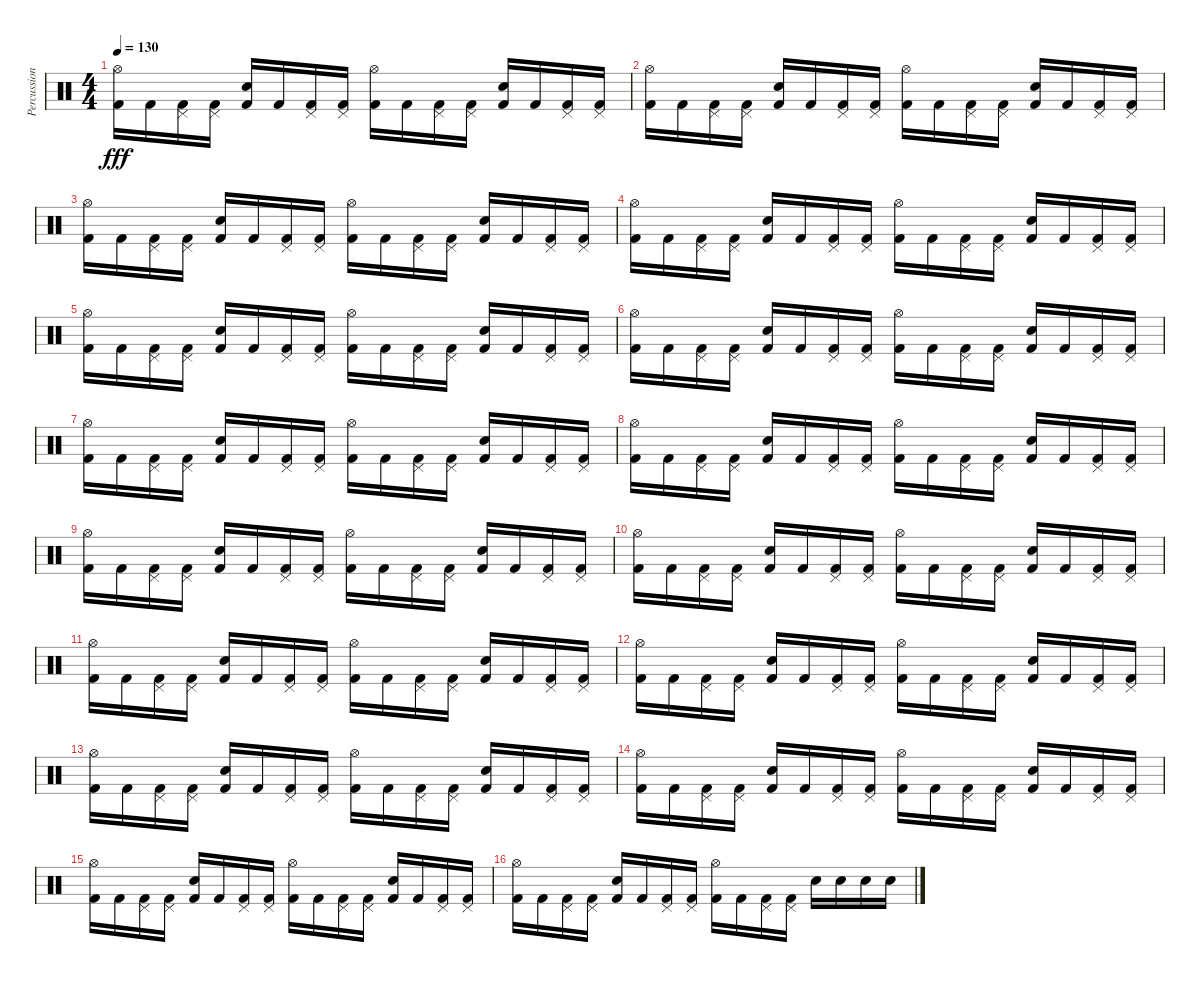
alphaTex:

\track ("Percussion" "Percussion") {instrument percussion}
\staff {score}
\articulation defaults
\ts (4 4)
\tempo 130
\clef neutral
\ks c
("Hi-Hat (open)" "Kick (hit) 2").16{dy fff} "Kick (hit) 2".16 ("Pedal Hi-Hat (hit)" "Kick (hit) 2").16 ("Pedal Hi-Hat (hit)" "Kick (hit) 2").16 ("Snare (hit) 2" "Kick (hit) 2").16 "Kick (hit) 2".16 ("Pedal Hi-Hat (hit)" "Kick (hit) 2").16 ("Pedal Hi-Hat (hit)" "Kick (hit) 2").16 ("Hi-Hat (open)" "Kick (hit) 2").16 "Kick (hit) 2".16 ("Pedal Hi-Hat (hit)" "Kick (hit) 2").16 ("Pedal Hi-Hat (hit)" "Kick (hit) 2").16 ("Snare (hit) 2" "Kick (hit) 2").16 "Kick (hit) 2".16 ("Pedal Hi-Hat (hit)" "Kick (hit) 2").16 ("Pedal Hi-Hat (hit)" "Kick (hit) 2").16 |
("Hi-Hat (open)" "Kick (hit) 2").16 "Kick (hit) 2".16 ("Pedal Hi-Hat (hit)" "Kick (hit) 2").16 ("Pedal Hi-Hat (hit)" "Kick (hit) 2").16 ("Snare (hit) 2" "Kick (hit) 2").16 "Kick (hit) 2".16 ("Pedal Hi-Hat (hit)" "Kick (hit) 2").16 ("Pedal Hi-Hat (hit)" "Kick (hit) 2").16 ("Hi-Hat (open)" "Kick (hit) 2").16 "Kick (hit) 2".16 ("Pedal Hi-Hat (hit)" "Kick (hit) 2").16 ("Pedal Hi-Hat (hit)" "Kick (hit) 2").16 ("Snare (hit) 2" "Kick (hit) 2").16 "Kick (hit) 2".16 ("Pedal Hi-Hat (hit)" "Kick (hit) 2").16 ("Pedal Hi-Hat (hit)" "Kick (hit) 2").16 |
("Hi-Hat (open)" "Kick (hit) 2").16 "Kick (hit) 2".16 ("Pedal Hi-Hat (hit)" "Kick (hit) 2").16 ("Pedal Hi-Hat (hit)" "Kick (hit) 2").16 ("Snare (hit) 2" "Kick (hit) 2").16 "Kick (hit) 2".16 ("Pedal Hi-Hat (hit)" "Kick (hit) 2").16 ("Pedal Hi-Hat (hit)" "Kick (hit) 2").16 ("Hi-Hat (open)" "Kick (hit) 2").16 "Kick (hit) 2".16 ("Pedal Hi-Hat (hit)" "Kick (hit) 2").16 ("Pedal Hi-Hat (hit)" "Kick (hit) 2").16 ("Snare (hit) 2" "Kick (hit) 2").16 "Kick (hit) 2".16 ("Pedal Hi-Hat (hit)" "Kick (hit) 2").16 ("Pedal Hi-Hat (hit)" "Kick (hit) 2").16 |
("Hi-Hat (open)" "Kick (hit) 2").16 "Kick (hit) 2".16 ("Pedal Hi-Hat (hit)" "Kick (hit) 2").16 ("Pedal Hi-Hat (hit)" "Kick (hit) 2").16 ("Snare (hit) 2" "Kick (hit) 2").16 "Kick (hit) 2".16 ("Pedal Hi-Hat (hit)" "Kick (hit) 2").16 ("Pedal Hi-Hat (hit)" "Kick (hit) 2").16 ("Hi-Hat (open)" "Kick (hit) 2").16 "Kick (hit) 2".16 ("Pedal Hi-Hat (hit)" "Kick (hit) 2").16 ("Pedal Hi-Hat (hit)" "Kick (hit) 2").16 ("Snare (hit) 2" "Kick (hit) 2").16 "Kick (hit) 2".16 ("Pedal Hi-Hat (hit)" "Kick (hit) 2").16 ("Pedal Hi-Hat (hit)" "Kick (hit) 2").16 |
("Hi-Hat (open)" "Kick (hit) 2").16 "Kick (hit) 2".16 ("Pedal Hi-Hat (hit)" "Kick (hit) 2").16 ("Pedal Hi-Hat (hit)" "Kick (hit) 2").16 ("Snare (hit) 2" "Kick (hit) 2").16 "Kick (hit) 2".16 ("Pedal Hi-Hat (hit)" "Kick (hit) 2").16 ("Pedal Hi-Hat (hit)" "Kick (hit) 2").16 ("Hi-Hat (open)" "Kick (hit) 2").16 "Kick (hit) 2".16 ("Pedal Hi-Hat (hit)" "Kick (hit) 2").16 ("Pedal Hi-Hat (hit)" "Kick (hit) 2").16 ("Snare (hit) 2" "Kick (hit) 2").16 "Kick (hit) 2".16 ("Pedal Hi-Hat (hit)" "Kick (hit) 2").16 ("Pedal Hi-Hat (hit)" "Kick (hit) 2").16 |
("Hi-Hat (open)" "Kick (hit) 2").16 "Kick (hit) 2".16 ("Pedal Hi-Hat (hit)" "Kick (hit) 2").16 ("Pedal Hi-Hat (hit)" "Kick (hit) 2").16 ("Snare (hit) 2" "Kick (hit) 2").16 "Kick (hit) 2".16 ("Pedal Hi-Hat (hit)" "Kick (hit) 2").16 ("Pedal Hi-Hat (hit)" "Kick (hit) 2").16 ("Hi-Hat (open)" "Kick (hit) 2").16 "Kick (hit) 2".16 ("Pedal Hi-Hat (hit)" "Kick (hit) 2").16 ("Pedal Hi-Hat (hit)" "Kick (hit) 2").16 ("Snare (hit) 2" "Kick (hit) 2").16 "Kick (hit) 2".16 ("Pedal Hi-Hat (hit)" "Kick (hit) 2").16 ("Pedal Hi-Hat (hit)" "Kick (hit) 2").16 |
("Hi-Hat (open)" "Kick (hit) 2").16 "Kick (hit) 2".16 ("Pedal Hi-Hat (hit)" "Kick (hit) 2").16 ("Pedal Hi-Hat (hit)" "Kick (hit) 2").16 ("Snare (hit) 2" "Kick (hit) 2").16 "Kick (hit) 2".16 ("Pedal Hi-Hat (hit)" "Kick (hit) 2").16 ("Pedal Hi-Hat (hit)" "Kick (hit) 2").16 ("Hi-Hat (open)" "Kick (hit) 2").16 "Kick (hit) 2".16 ("Pedal Hi-Hat (hit)" "Kick (hit) 2").16 ("Pedal Hi-Hat (hit)" "Kick (hit) 2").16 ("Snare (hit) 2" "Kick (hit) 2").16 "Kick (hit) 2".16 ("Pedal Hi-Hat (hit)" "Kick (hit) 2").16 ("Pedal Hi-Hat (hit)" "Kick (hit) 2").16 |
("Hi-Hat (open)" "Kick (hit) 2").16 "Kick (hit) 2".16 ("Pedal Hi-Hat (hit)" "Kick (hit) 2").16 ("Pedal Hi-Hat (hit)" "Kick (hit) 2").16 ("Snare (hit) 2" "Kick (hit) 2").16 "Kick (hit) 2".16 ("Pedal Hi-Hat (hit)" "Kick (hit) 2").16 ("Pedal Hi-Hat (hit)" "Kick (hit) 2").16 ("Hi-Hat (open)" "Kick (hit) 2").16 "Kick (hit) 2".16 ("Pedal Hi-Hat (hit)" "Kick (hit) 2").16 ("Pedal Hi-Hat (hit)" "Kick (hit) 2").16 ("Snare (hit) 2" "Kick (hit) 2").16 "Kick (hit) 2".16 ("Pedal Hi-Hat (hit)" "Kick (hit) 2").16 ("Pedal Hi-Hat (hit)" "Kick (hit) 2").16 |
("Hi-Hat (open)" "Kick (hit) 2").16 "Kick (hit) 2".16 ("Pedal Hi-Hat (hit)" "Kick (hit) 2").16 ("Pedal Hi-Hat (hit)" "Kick (hit) 2").16 ("Snare (hit) 2" "Kick (hit) 2").16 "Kick (hit) 2".16 ("Pedal Hi-Hat (hit)" "Kick (hit) 2").16 ("Pedal Hi-Hat (hit)" "Kick (hit) 2").16 ("Hi-Hat (open)" "Kick (hit) 2").16 "Kick (hit) 2".16 ("Pedal Hi-Hat (hit)" "Kick (hit) 2").16 ("Pedal Hi-Hat (hit)" "Kick (hit) 2").16 ("Snare (hit) 2" "Kick (hit) 2").16 "Kick (hit) 2".16 ("Pedal Hi-Hat (hit)" "Kick (hit) 2").16 ("Pedal Hi-Hat (hit)" "Kick (hit) 2").16 |
("Hi-Hat (open)" "Kick (hit) 2").16 "Kick (hit) 2".16 ("Pedal Hi-Hat (hit)" "Kick (hit) 2").16 ("Pedal Hi-Hat (hit)" "Kick (hit) 2").16 ("Snare (hit) 2" "Kick (hit) 2").16 "Kick (hit) 2".16 ("Pedal Hi-Hat (hit)" "Kick (hit) 2").16 ("Pedal Hi-Hat (hit)" "Kick (hit) 2").16 ("Hi-Hat (open)" "Kick (hit) 2").16 "Kick (hit) 2".16 ("Pedal Hi-Hat (hit)" "Kick (hit) 2").16 ("Pedal Hi-Hat (hit)" "Kick (hit) 2").16 ("Snare (hit) 2" "Kick (hit) 2").16 "Kick (hit) 2".16 ("Pedal Hi-Hat (hit)" "Kick (hit) 2").16 ("Pedal Hi-Hat (hit)" "Kick (hit) 2").16 |
("Hi-Hat (open)" "Kick (hit) 2").16 "Kick (hit) 2".16 ("Pedal Hi-Hat (hit)" "Kick (hit) 2").16 ("Pedal Hi-Hat (hit)" "Kick (hit) 2").16 ("Snare (hit) 2" "Kick (hit) 2").16 "Kick (hit) 2".16 ("Pedal Hi-Hat (hit)" "Kick (hit) 2").16 ("Pedal Hi-Hat (hit)" "Kick (hit) 2").16 ("Hi-Hat (open)" "Kick (hit) 2").16 "Kick (hit) 2".16 ("Pedal Hi-Hat (hit)" "Kick (hit) 2").16 ("Pedal Hi-Hat (hit)" "Kick (hit) 2").16 ("Snare (hit) 2" "Kick (hit) 2").16 "Kick (hit) 2".16 ("Pedal Hi-Hat (hit)" "Kick (hit) 2").16 ("Pedal Hi-Hat (hit)" "Kick (hit) 2").16 |
("Hi-Hat (open)" "Kick (hit) 2").16 "Kick (hit) 2".16 ("Pedal Hi-Hat (hit)" "Kick (hit) 2").16 ("Pedal Hi-Hat (hit)" "Kick (hit) 2").16 ("Snare (hit) 2" "Kick (hit) 2").16 "Kick (hit) 2".16 ("Pedal Hi-Hat (hit)" "Kick (hit) 2").16 ("Pedal Hi-Hat (hit)" "Kick (hit) 2").16 ("Hi-Hat (open)" "Kick (hit) 2").16 "Kick (hit) 2".16 ("Pedal Hi-Hat (hit)" "Kick (hit) 2").16 ("Pedal Hi-Hat (hit)" "Kick (hit) 2").16 ("Snare (hit) 2" "Kick (hit) 2").16 "Kick (hit) 2".16 ("Pedal Hi-Hat (hit)" "Kick (hit) 2").16 ("Pedal Hi-Hat (hit)" "Kick (hit) 2").16 |
("Hi-Hat (open)" "Kick (hit) 2").16 "Kick (hit) 2".16 ("Pedal Hi-Hat (hit)" "Kick (hit) 2").16 ("Pedal Hi-Hat (hit)" "Kick (hit) 2").16 ("Snare (hit) 2" "Kick (hit) 2").16 "Kick (hit) 2".16 ("Pedal Hi-Hat (hit)" "Kick (hit) 2").16 ("Pedal Hi-Hat (hit)" "Kick (hit) 2").16 ("Hi-Hat (open)" "Kick (hit) 2").16 "Kick (hit) 2".16 ("Pedal Hi-Hat (hit)" "Kick (hit) 2").16 ("Pedal Hi-Hat (hit)" "Kick (hit) 2").16 ("Snare (hit) 2" "Kick (hit) 2").16 "Kick (hit) 2".16 ("Pedal Hi-Hat (hit)" "Kick (hit) 2").16 ("Pedal Hi-Hat (hit)" "Kick (hit) 2").16 |
("Hi-Hat (open)" "Kick (hit) 2").16 "Kick (hit) 2".16 ("Pedal Hi-Hat (hit)" "Kick (hit) 2").16 ("Pedal Hi-Hat (hit)" "Kick (hit) 2").16 ("Snare (hit) 2" "Kick (hit) 2").16 "Kick (hit) 2".16 ("Pedal Hi-Hat (hit)" "Kick (hit) 2").16 ("Pedal Hi-Hat (hit)" "Kick (hit) 2").16 ("Hi-Hat (open)" "Kick (hit) 2").16 "Kick (hit) 2".16 ("Pedal Hi-Hat (hit)" "Kick (hit) 2").16 ("Pedal Hi-Hat (hit)" "Kick (hit) 2").16 ("Snare (hit) 2" "Kick (hit) 2").16 "Kick (hit) 2".16 ("Pedal Hi-Hat (hit)" "Kick (hit) 2").16 ("Pedal Hi-Hat (hit)" "Kick (hit) 2").16 |
("Hi-Hat (open)" "Kick (hit) 2").16 "Kick (hit) 2".16 ("Pedal Hi-Hat (hit)" "Kick (hit) 2").16 ("Pedal Hi-Hat (hit)" "Kick (hit) 2").16 ("Snare (hit) 2" "Kick (hit) 2").16 "Kick (hit) 2".16 ("Pedal Hi-Hat (hit)" "Kick (hit) 2").16 ("Pedal Hi-Hat (hit)" "Kick (hit) 2").16 ("Hi-Hat (open)" "Kick (hit) 2").16 "Kick (hit) 2".16 ("Pedal Hi-Hat (hit)" "Kick (hit) 2").16 ("Pedal Hi-Hat (hit)" "Kick (hit) 2").16 ("Snare (hit) 2" "Kick (hit) 2").16 "Kick (hit) 2".16 ("Pedal Hi-Hat (hit)" "Kick (hit) 2").16 ("Pedal Hi-Hat (hit)" "Kick (hit) 2").16 |
("Hi-Hat (open)" "Kick (hit) 2").16 "Kick (hit) 2".16 ("Pedal Hi-Hat (hit)" "Kick (hit) 2").16 ("Pedal Hi-Hat (hit)" "Kick (hit) 2").16 ("Snare (hit) 2" "Kick (hit) 2").16 "Kick (hit) 2".16 ("Pedal Hi-Hat (hit)" "Kick (hit) 2").16 ("Pedal Hi-Hat (hit)" "Kick (hit) 2").16 ("Hi-Hat (open)" "Kick (hit) 2").16 "Kick (hit) 2".16 ("Pedal Hi-Hat (hit)" "Kick (hit) 2").16 ("Pedal Hi-Hat (hit)" "Kick (hit) 2").16 "Snare (hit) 2".16 "Snare (hit) 2".16 "Snare (hit) 2".16 "Snare (hit) 2".16
